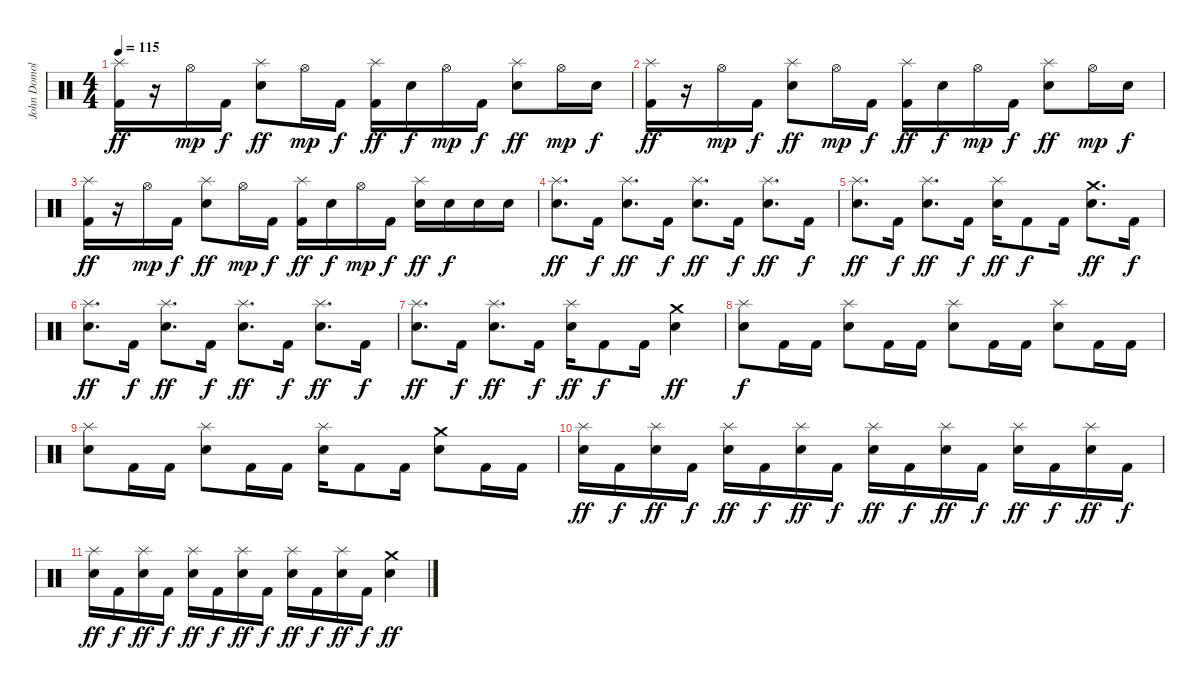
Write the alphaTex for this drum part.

\track ("John Domolyan (Drums)" "John Domol") {instrument percussion}
\staff {score}
\articulation defaults
\ts (4 4)
\tempo 115
\clef neutral
\ks c
("Splash (hit)" "Kick (hit) 2").16{dy ff} r.16 "Hi-Hat (open)".16{dy mp} "Kick (hit) 2".16{dy f} ("Splash (hit)" "Electric Snare (hit)").8{dy ff} "Hi-Hat (open)".16{dy mp} "Kick (hit) 2".16{dy f} ("Splash (hit)" "Kick (hit) 2").16{dy ff} "Electric Snare (hit)".16{dy f} "Hi-Hat (open)".16{dy mp} "Kick (hit) 2".16{dy f} ("Splash (hit)" "Electric Snare (hit)").8{dy ff} "Hi-Hat (open)".16{dy mp} "Electric Snare (hit)".16{dy f} |
("Splash (hit)" "Kick (hit) 2").16{dy ff} r.16 "Hi-Hat (open)".16{dy mp} "Kick (hit) 2".16{dy f} ("Splash (hit)" "Electric Snare (hit)").8{dy ff} "Hi-Hat (open)".16{dy mp} "Kick (hit) 2".16{dy f} ("Splash (hit)" "Kick (hit) 2").16{dy ff} "Electric Snare (hit)".16{dy f} "Hi-Hat (open)".16{dy mp} "Kick (hit) 2".16{dy f} ("Splash (hit)" "Electric Snare (hit)").8{dy ff} "Hi-Hat (open)".16{dy mp} "Electric Snare (hit)".16{dy f} |
("Splash (hit)" "Kick (hit) 2").16{dy ff} r.16 "Hi-Hat (open)".16{dy mp} "Kick (hit) 2".16{dy f} ("Splash (hit)" "Electric Snare (hit)").8{dy ff} "Hi-Hat (open)".16{dy mp} "Kick (hit) 2".16{dy f} ("Splash (hit)" "Kick (hit) 2").16{dy ff} "Electric Snare (hit)".16{dy f} "Hi-Hat (open)".16{dy mp} "Kick (hit) 2".16{dy f} ("Splash (hit)" "Electric Snare (hit)").16{dy ff} "Electric Snare (hit)".16{dy f} "Electric Snare (hit)".16 "Electric Snare (hit)".16 |
("Splash (hit)" "Electric Snare (hit)").8{d dy ff} "Kick (hit) 2".16{dy f} ("Splash (hit)" "Electric Snare (hit)").8{d dy ff} "Kick (hit) 2".16{dy f} ("Splash (hit)" "Electric Snare (hit)").8{d dy ff} "Kick (hit) 2".16{dy f} ("Splash (hit)" "Electric Snare (hit)").8{d dy ff} "Kick (hit) 2".16{dy f} |
("Splash (hit)" "Electric Snare (hit)").8{d dy ff} "Kick (hit) 2".16{dy f} ("Splash (hit)" "Electric Snare (hit)").8{d dy ff} "Kick (hit) 2".16{dy f} ("Splash (hit)" "Electric Snare (hit)").16{dy ff} "Kick (hit) 2".8{dy f} "Kick (hit) 2".16 ("Crash medium (hit)" "Electric Snare (hit)").8{d dy ff} "Kick (hit) 2".16{dy f} |
("Splash (hit)" "Electric Snare (hit)").8{d dy ff} "Kick (hit) 2".16{dy f} ("Splash (hit)" "Electric Snare (hit)").8{d dy ff} "Kick (hit) 2".16{dy f} ("Splash (hit)" "Electric Snare (hit)").8{d dy ff} "Kick (hit) 2".16{dy f} ("Splash (hit)" "Electric Snare (hit)").8{d dy ff} "Kick (hit) 2".16{dy f} |
("Splash (hit)" "Electric Snare (hit)").8{d dy ff} "Kick (hit) 2".16{dy f} ("Splash (hit)" "Electric Snare (hit)").8{d dy ff} "Kick (hit) 2".16{dy f} ("Splash (hit)" "Electric Snare (hit)").16{dy ff} "Kick (hit) 2".8{dy f} "Kick (hit) 2".16 ("Crash medium (hit)" "Electric Snare (hit)").4{dy ff} |
("Splash (hit)" "Electric Snare (hit)").8{dy f} "Kick (hit) 2".16 "Kick (hit) 2".16 ("Splash (hit)" "Electric Snare (hit)").8 "Kick (hit) 2".16 "Kick (hit) 2".16 ("Splash (hit)" "Electric Snare (hit)").8 "Kick (hit) 2".16 "Kick (hit) 2".16 ("Splash (hit)" "Electric Snare (hit)").8 "Kick (hit) 2".16 "Kick (hit) 2".16 |
("Splash (hit)" "Electric Snare (hit)").8 "Kick (hit) 2".16 "Kick (hit) 2".16 ("Splash (hit)" "Electric Snare (hit)").8 "Kick (hit) 2".16 "Kick (hit) 2".16 ("Splash (hit)" "Electric Snare (hit)").16 "Kick (hit) 2".8 "Kick (hit) 2".16 ("Crash medium (hit)" "Electric Snare (hit)").8 "Kick (hit) 2".16 "Kick (hit) 2".16 |
("Splash (hit)" "Electric Snare (hit)").16{dy ff} "Kick (hit) 2".16{dy f} ("Splash (hit)" "Electric Snare (hit)").16{dy ff} "Kick (hit) 2".16{dy f} ("Splash (hit)" "Electric Snare (hit)").16{dy ff} "Kick (hit) 2".16{dy f} ("Splash (hit)" "Electric Snare (hit)").16{dy ff} "Kick (hit) 2".16{dy f} ("Splash (hit)" "Electric Snare (hit)").16{dy ff} "Kick (hit) 2".16{dy f} ("Splash (hit)" "Electric Snare (hit)").16{dy ff} "Kick (hit) 2".16{dy f} ("Splash (hit)" "Electric Snare (hit)").16{dy ff} "Kick (hit) 2".16{dy f} ("Splash (hit)" "Electric Snare (hit)").16{dy ff} "Kick (hit) 2".16{dy f} |
("Splash (hit)" "Electric Snare (hit)").16{dy ff} "Kick (hit) 2".16{dy f} ("Splash (hit)" "Electric Snare (hit)").16{dy ff} "Kick (hit) 2".16{dy f} ("Splash (hit)" "Electric Snare (hit)").16{dy ff} "Kick (hit) 2".16{dy f} ("Splash (hit)" "Electric Snare (hit)").16{dy ff} "Kick (hit) 2".16{dy f} ("Splash (hit)" "Electric Snare (hit)").16{dy ff} "Kick (hit) 2".16{dy f} ("Splash (hit)" "Electric Snare (hit)").16{dy ff} "Kick (hit) 2".16{dy f} ("Crash medium (hit)" "Electric Snare (hit)").4{dy ff}
